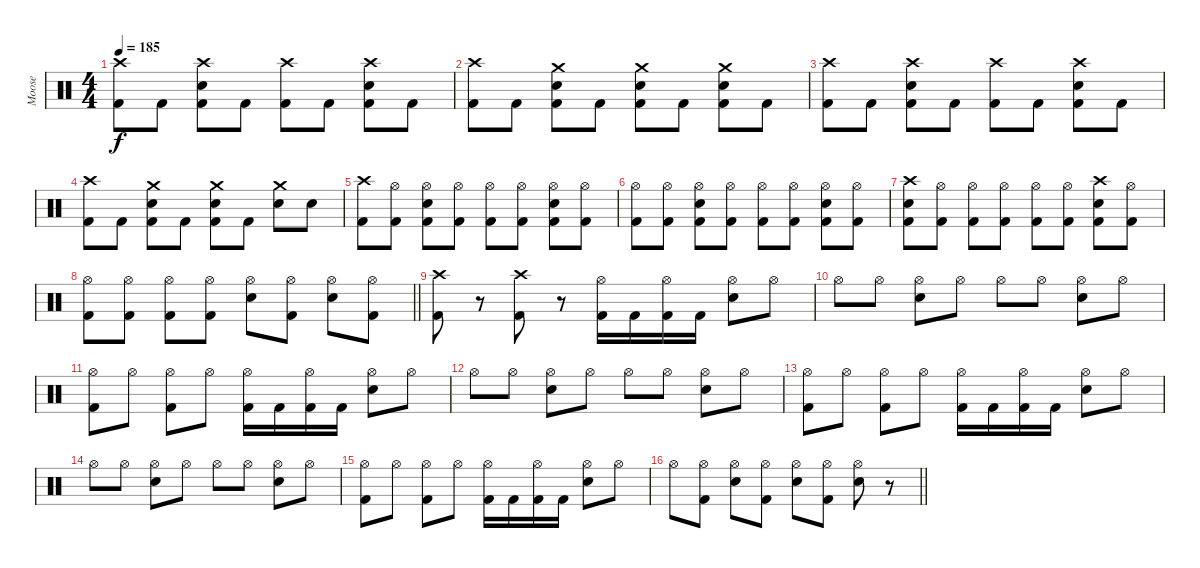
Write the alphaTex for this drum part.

\track ("Moose" "Moose") {instrument percussion}
\staff {score}
\articulation defaults
\ts (4 4)
\tempo 185
\clef neutral
\ks c
("Crash high (hit)" "Kick (hit) 2").8{dy f} "Kick (hit) 2".8 ("Crash high (hit)" "Electric Snare (hit)" "Kick (hit) 2").8 "Kick (hit) 2".8 ("Crash high (hit)" "Kick (hit) 2").8 "Kick (hit) 2".8 ("Crash high (hit)" "Electric Snare (hit)" "Kick (hit) 2").8 "Kick (hit) 2".8 |
("Crash high (hit)" "Kick (hit) 2").8 "Kick (hit) 2".8 ("Crash medium (hit)" "Electric Snare (hit)" "Kick (hit) 2").8 "Kick (hit) 2".8 ("Crash medium (hit)" "Electric Snare (hit)" "Kick (hit) 2").8 "Kick (hit) 2".8 ("Crash medium (hit)" "Electric Snare (hit)" "Kick (hit) 2").8 "Kick (hit) 2".8 |
("Crash high (hit)" "Kick (hit) 2").8 "Kick (hit) 2".8 ("Crash high (hit)" "Electric Snare (hit)" "Kick (hit) 2").8 "Kick (hit) 2".8 ("Crash high (hit)" "Kick (hit) 2").8 "Kick (hit) 2".8 ("Crash high (hit)" "Electric Snare (hit)" "Kick (hit) 2").8 "Kick (hit) 2".8 |
("Crash high (hit)" "Kick (hit) 2").8 "Kick (hit) 2".8 ("Crash medium (hit)" "Electric Snare (hit)" "Kick (hit) 2").8 "Kick (hit) 2".8 ("Crash medium (hit)" "Electric Snare (hit)" "Kick (hit) 2").8 "Kick (hit) 2".8 ("Crash medium (hit)" "Electric Snare (hit)").8 "Electric Snare (hit)".8 |
("Crash high (hit)" "Kick (hit) 2").8 ("Hi-Hat (open)" "Kick (hit) 2").8 ("Hi-Hat (open)" "Electric Snare (hit)" "Kick (hit) 2").8 ("Hi-Hat (open)" "Kick (hit) 2").8 ("Hi-Hat (open)" "Kick (hit) 2").8 ("Hi-Hat (open)" "Kick (hit) 2").8 ("Hi-Hat (open)" "Electric Snare (hit)" "Kick (hit) 2").8 ("Hi-Hat (open)" "Kick (hit) 2").8 |
("Hi-Hat (open)" "Kick (hit) 2").8 ("Hi-Hat (open)" "Kick (hit) 2").8 ("Hi-Hat (open)" "Electric Snare (hit)" "Kick (hit) 2").8 ("Hi-Hat (open)" "Kick (hit) 2").8 ("Hi-Hat (open)" "Kick (hit) 2").8 ("Hi-Hat (open)" "Kick (hit) 2").8 ("Hi-Hat (open)" "Electric Snare (hit)" "Kick (hit) 2").8 ("Hi-Hat (open)" "Kick (hit) 2").8 |
("Crash high (hit)" "Electric Snare (hit)" "Kick (hit) 2").8 ("Hi-Hat (open)" "Kick (hit) 2").8 ("Hi-Hat (open)" "Kick (hit) 2").8 ("Hi-Hat (open)" "Kick (hit) 2").8 ("Hi-Hat (open)" "Kick (hit) 2").8 ("Hi-Hat (open)" "Kick (hit) 2").8 ("Crash high (hit)" "Electric Snare (hit)" "Kick (hit) 2").8 ("Hi-Hat (open)" "Kick (hit) 2").8 |
\barLineRight lightlight
("Hi-Hat (open)" "Kick (hit) 2").8 ("Hi-Hat (open)" "Kick (hit) 2").8 ("Hi-Hat (open)" "Kick (hit) 2").8 ("Hi-Hat (open)" "Kick (hit) 2").8 ("Hi-Hat (open)" "Electric Snare (hit)").8 ("Hi-Hat (open)" "Kick (hit) 2").8 ("Hi-Hat (open)" "Electric Snare (hit)").8 ("Hi-Hat (open)" "Kick (hit) 2").8 |
("Crash high (hit)" "Kick (hit) 2").8 r.8 ("Crash high (hit)" "Kick (hit) 2").8 r.8 ("Hi-Hat (open)" "Kick (hit) 2").16 "Kick (hit) 2".16 ("Hi-Hat (open)" "Kick (hit) 2").16 "Kick (hit) 2".16 ("Hi-Hat (open)" "Electric Snare (hit)").8 "Hi-Hat (open)".8 |
"Hi-Hat (open)".8 "Hi-Hat (open)".8 ("Hi-Hat (open)" "Electric Snare (hit)").8 "Hi-Hat (open)".8 "Hi-Hat (open)".8 "Hi-Hat (open)".8 ("Hi-Hat (open)" "Electric Snare (hit)").8 "Hi-Hat (open)".8 |
("Hi-Hat (open)" "Kick (hit) 2").8 "Hi-Hat (open)".8 ("Hi-Hat (open)" "Kick (hit) 2").8 "Hi-Hat (open)".8 ("Hi-Hat (open)" "Kick (hit) 2").16 "Kick (hit) 2".16 ("Hi-Hat (open)" "Kick (hit) 2").16 "Kick (hit) 2".16 ("Hi-Hat (open)" "Electric Snare (hit)").8 "Hi-Hat (open)".8 |
"Hi-Hat (open)".8 "Hi-Hat (open)".8 ("Hi-Hat (open)" "Electric Snare (hit)").8 "Hi-Hat (open)".8 "Hi-Hat (open)".8 "Hi-Hat (open)".8 ("Hi-Hat (open)" "Electric Snare (hit)").8 "Hi-Hat (open)".8 |
("Hi-Hat (open)" "Kick (hit) 2").8 "Hi-Hat (open)".8 ("Hi-Hat (open)" "Kick (hit) 2").8 "Hi-Hat (open)".8 ("Hi-Hat (open)" "Kick (hit) 2").16 "Kick (hit) 2".16 ("Hi-Hat (open)" "Kick (hit) 2").16 "Kick (hit) 2".16 ("Hi-Hat (open)" "Electric Snare (hit)").8 "Hi-Hat (open)".8 |
"Hi-Hat (open)".8 "Hi-Hat (open)".8 ("Hi-Hat (open)" "Electric Snare (hit)").8 "Hi-Hat (open)".8 "Hi-Hat (open)".8 "Hi-Hat (open)".8 ("Hi-Hat (open)" "Electric Snare (hit)").8 "Hi-Hat (open)".8 |
("Hi-Hat (open)" "Kick (hit) 2").8 "Hi-Hat (open)".8 ("Hi-Hat (open)" "Kick (hit) 2").8 "Hi-Hat (open)".8 ("Hi-Hat (open)" "Kick (hit) 2").16 "Kick (hit) 2".16 ("Hi-Hat (open)" "Kick (hit) 2").16 "Kick (hit) 2".16 ("Hi-Hat (open)" "Electric Snare (hit)").8 "Hi-Hat (open)".8 |
\barLineRight lightlight "Hi-Hat (open)".8
("Hi-Hat (open)" "Kick (hit) 2").8 ("Hi-Hat (open)" "Electric Snare (hit)").8 ("Hi-Hat (open)" "Kick (hit) 2").8 ("Hi-Hat (open)" "Electric Snare (hit)").8 ("Hi-Hat (open)" "Kick (hit) 2").8 ("Hi-Hat (open)" "Electric Snare (hit)").8 r.8
